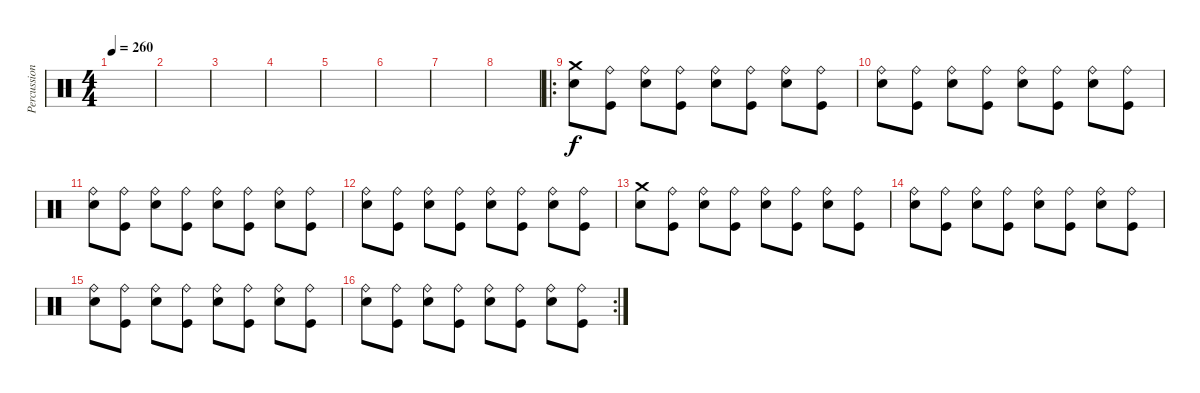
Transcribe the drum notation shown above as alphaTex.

\track ("Percussions" "Percussion") {instrument percussion}
\staff {score}
\articulation defaults
\ts (4 4)
\tempo 260
\clef neutral
\ks c
|
|
|
|
|
|
|
|
\ro
("Electric Snare (hit)" "Crash medium (hit)").8 ("Kick (hit)" "Ride (bell)").8 ("Electric Snare (hit)" "Ride (bell)").8 ("Kick (hit)" "Ride (bell)").8 ("Electric Snare (hit)" "Ride (bell)").8 ("Kick (hit)" "Ride (bell)").8 ("Electric Snare (hit)" "Ride (bell)").8 ("Kick (hit)" "Ride (bell)").8 |
("Electric Snare (hit)" "Ride (bell)").8 ("Kick (hit)" "Ride (bell)").8 ("Electric Snare (hit)" "Ride (bell)").8 ("Kick (hit)" "Ride (bell)").8 ("Electric Snare (hit)" "Ride (bell)").8 ("Kick (hit)" "Ride (bell)").8 ("Electric Snare (hit)" "Ride (bell)").8 ("Kick (hit)" "Ride (bell)").8 |
("Electric Snare (hit)" "Ride (bell)").8 ("Kick (hit)" "Ride (bell)").8 ("Electric Snare (hit)" "Ride (bell)").8 ("Kick (hit)" "Ride (bell)").8 ("Electric Snare (hit)" "Ride (bell)").8 ("Kick (hit)" "Ride (bell)").8 ("Electric Snare (hit)" "Ride (bell)").8 ("Kick (hit)" "Ride (bell)").8 |
("Electric Snare (hit)" "Ride (bell)").8 ("Kick (hit)" "Ride (bell)").8 ("Electric Snare (hit)" "Ride (bell)").8 ("Kick (hit)" "Ride (bell)").8 ("Electric Snare (hit)" "Ride (bell)").8 ("Kick (hit)" "Ride (bell)").8 ("Electric Snare (hit)" "Ride (bell)").8 ("Kick (hit)" "Ride (bell)").8 |
("Electric Snare (hit)" "Crash medium (hit)").8 ("Kick (hit)" "Ride (bell)").8 ("Electric Snare (hit)" "Ride (bell)").8 ("Kick (hit)" "Ride (bell)").8 ("Electric Snare (hit)" "Ride (bell)").8 ("Kick (hit)" "Ride (bell)").8 ("Electric Snare (hit)" "Ride (bell)").8 ("Kick (hit)" "Ride (bell)").8 |
("Electric Snare (hit)" "Ride (bell)").8 ("Kick (hit)" "Ride (bell)").8 ("Electric Snare (hit)" "Ride (bell)").8 ("Kick (hit)" "Ride (bell)").8 ("Electric Snare (hit)" "Ride (bell)").8 ("Kick (hit)" "Ride (bell)").8 ("Electric Snare (hit)" "Ride (bell)").8 ("Kick (hit)" "Ride (bell)").8 |
("Electric Snare (hit)" "Ride (bell)").8 ("Kick (hit)" "Ride (bell)").8 ("Electric Snare (hit)" "Ride (bell)").8 ("Kick (hit)" "Ride (bell)").8 ("Electric Snare (hit)" "Ride (bell)").8 ("Kick (hit)" "Ride (bell)").8 ("Electric Snare (hit)" "Ride (bell)").8 ("Kick (hit)" "Ride (bell)").8 |
\rc 2
("Electric Snare (hit)" "Ride (bell)").8 ("Kick (hit)" "Ride (bell)").8 ("Electric Snare (hit)" "Ride (bell)").8 ("Kick (hit)" "Ride (bell)").8 ("Electric Snare (hit)" "Ride (bell)").8 ("Kick (hit)" "Ride (bell)").8 ("Electric Snare (hit)" "Ride (bell)").8 ("Kick (hit)" "Ride (bell)").8
